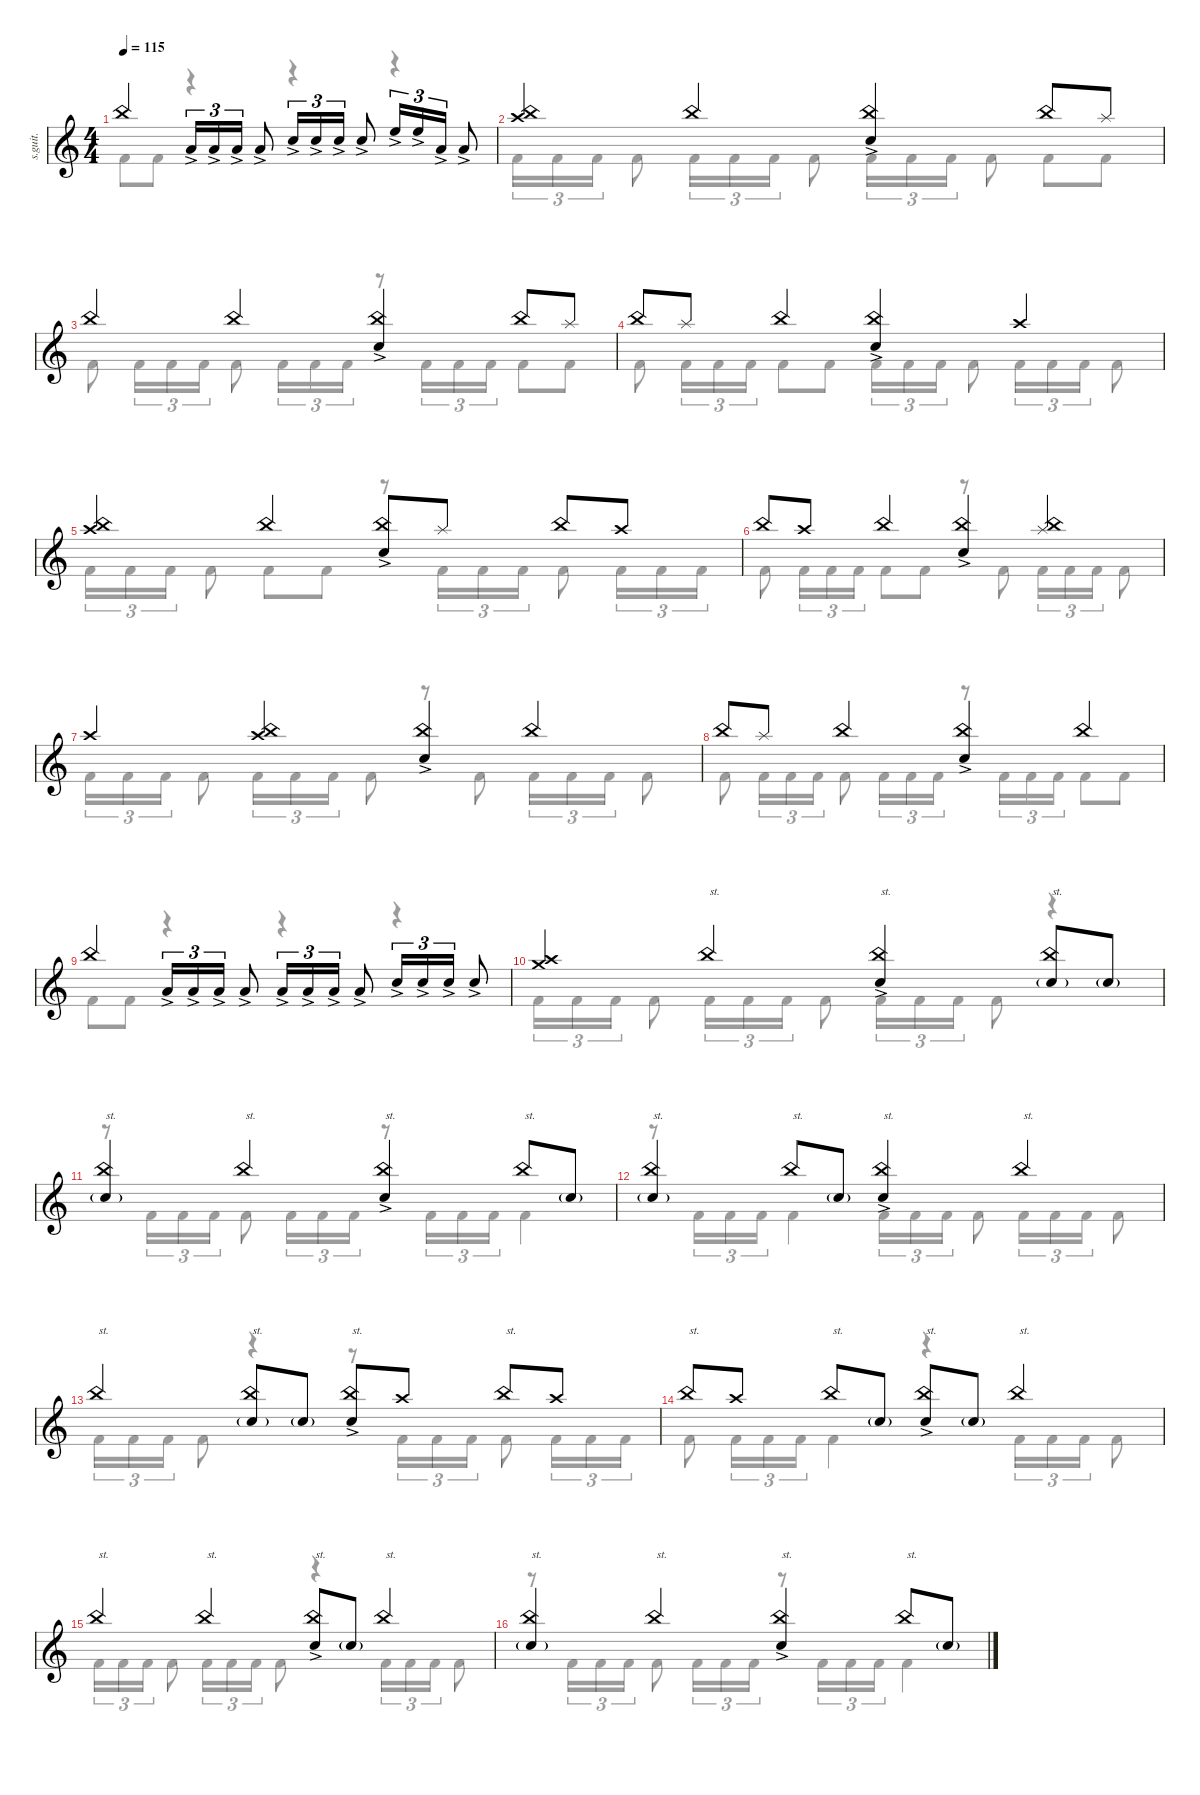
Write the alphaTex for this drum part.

\defaultSystemsLayout 4
\hideDynamics
\bracketExtendMode nobrackets
\track ("Percussion" "s.guit.") {instrument percussion}
\staff {score}
\articulation defaults
\voice
\ts (4 4)
\tempo 115
\clef g2
\ks c "China (hit)".4{lyrics (0 "") lyrics (1 "") lyrics (2 "") lyrics (3 "") lyrics (4 "") dy f} "Low Tom (hit)"{ac}.16{tu (3 2) lyrics (0 "") lyrics (1 "") lyrics (2 "") lyrics (3 "") lyrics (4 "") dy mf} "Low Tom (hit)"{ac}.16{tu (3 2) lyrics (0 "") lyrics (1 "") lyrics (2 "") lyrics (3 "") lyrics (4 "")} "Low Tom (hit)"{ac}.16{tu (3 2) lyrics (0 "") lyrics (1 "") lyrics (2 "") lyrics (3 "") lyrics (4 "")} "Low Tom (hit)"{ac}.8{lyrics (0 "") lyrics (1 "") lyrics (2 "") lyrics (3 "") lyrics (4 "")} "Snare (hit) 2"{ac}.16{tu (3 2) lyrics (0 "") lyrics (1 "") lyrics (2 "") lyrics (3 "") lyrics (4 "")} "Snare (hit) 2"{ac}.16{tu (3 2) lyrics (0 "") lyrics (1 "") lyrics (2 "") lyrics (3 "") lyrics (4 "")} "Snare (hit) 2"{ac}.16{tu (3 2) lyrics (0 "") lyrics (1 "") lyrics (2 "") lyrics (3 "") lyrics (4 "")} "Snare (hit) 2"{ac}.8{lyrics (0 "") lyrics (1 "") lyrics (2 "") lyrics (3 "") lyrics (4 "")} "High Floor Tom (hit)"{ac}.16{tu (3 2) lyrics (0 "") lyrics (1 "") lyrics (2 "") lyrics (3 "") lyrics (4 "")} "High Floor Tom (hit)"{ac}.16{tu (3 2) lyrics (0 "") lyrics (1 "") lyrics (2 "") lyrics (3 "") lyrics (4 "")} "Low Tom (hit)"{ac}.16{tu (3 2) lyrics (0 "") lyrics (1 "") lyrics (2 "") lyrics (3 "") lyrics (4 "")} "Low Tom (hit)"{ac}.8{lyrics (0 "") lyrics (1 "") lyrics (2 "") lyrics (3 "") lyrics (4 "")}
|
("China (hit)" "Crash high (hit)").4{lyrics (0 "") lyrics (1 "") lyrics (2 "") lyrics (3 "") lyrics (4 "") dy f} "China (hit)".4{lyrics (0 "") lyrics (1 "") lyrics (2 "") lyrics (3 "") lyrics (4 "")} ("China (hit)" "Snare (hit) 2"{ac}).4{lyrics (0 "") lyrics (1 "") lyrics (2 "") lyrics (3 "") lyrics (4 "")} "China (hit)".8{lyrics (0 "") lyrics (1 "") lyrics (2 "") lyrics (3 "") lyrics (4 "")} "Splash (hit)".8{lyrics (0 "") lyrics (1 "") lyrics (2 "") lyrics (3 "") lyrics (4 "")} |
"China (hit)".4{lyrics (0 "") lyrics (1 "") lyrics (2 "") lyrics (3 "") lyrics (4 "")} "China (hit)".4{lyrics (0 "") lyrics (1 "") lyrics (2 "") lyrics (3 "") lyrics (4 "")} ("China (hit)" "Snare (hit) 2"{ac}).4{lyrics (0 "") lyrics (1 "") lyrics (2 "") lyrics (3 "") lyrics (4 "")} "China (hit)".8{lyrics (0 "") lyrics (1 "") lyrics (2 "") lyrics (3 "") lyrics (4 "")} "Splash (hit)".8{lyrics (0 "") lyrics (1 "") lyrics (2 "") lyrics (3 "") lyrics (4 "")} |
"China (hit)".8{lyrics (0 "") lyrics (1 "") lyrics (2 "") lyrics (3 "") lyrics (4 "")} "Splash (hit)".8{lyrics (0 "") lyrics (1 "") lyrics (2 "") lyrics (3 "") lyrics (4 "")} "China (hit)".4{lyrics (0 "") lyrics (1 "") lyrics (2 "") lyrics (3 "") lyrics (4 "")} ("China (hit)" "Snare (hit) 2"{ac}).4{lyrics (0 "") lyrics (1 "") lyrics (2 "") lyrics (3 "") lyrics (4 "")} "Crash high (hit)".4{lyrics (0 "") lyrics (1 "") lyrics (2 "") lyrics (3 "") lyrics (4 "")} |
("China (hit)" "Crash high (hit)").4{lyrics (0 "") lyrics (1 "") lyrics (2 "") lyrics (3 "") lyrics (4 "")} "China (hit)".4{lyrics (0 "") lyrics (1 "") lyrics (2 "") lyrics (3 "") lyrics (4 "")} ("China (hit)" "Snare (hit) 2"{ac}).8{lyrics (0 "") lyrics (1 "") lyrics (2 "") lyrics (3 "") lyrics (4 "")} "Splash (hit)".8{lyrics (0 "") lyrics (1 "") lyrics (2 "") lyrics (3 "") lyrics (4 "")} "China (hit)".8{lyrics (0 "") lyrics (1 "") lyrics (2 "") lyrics (3 "") lyrics (4 "")} "Crash high (hit)".8{lyrics (0 "") lyrics (1 "") lyrics (2 "") lyrics (3 "") lyrics (4 "")} |
"China (hit)".8{lyrics (0 "") lyrics (1 "") lyrics (2 "") lyrics (3 "") lyrics (4 "")} "Crash high (hit)".8{lyrics (0 "") lyrics (1 "") lyrics (2 "") lyrics (3 "") lyrics (4 "")} "China (hit)".4{lyrics (0 "") lyrics (1 "") lyrics (2 "") lyrics (3 "") lyrics (4 "")} ("China (hit)" "Snare (hit) 2"{ac}).4{lyrics (0 "") lyrics (1 "") lyrics (2 "") lyrics (3 "") lyrics (4 "")} ("China (hit)" "Splash (hit)").4{lyrics (0 "") lyrics (1 "") lyrics (2 "") lyrics (3 "") lyrics (4 "")} |
"Crash high (hit)".4{lyrics (0 "") lyrics (1 "") lyrics (2 "") lyrics (3 "") lyrics (4 "")} ("China (hit)" "Crash high (hit)").4{lyrics (0 "") lyrics (1 "") lyrics (2 "") lyrics (3 "") lyrics (4 "")} ("China (hit)" "Snare (hit) 2"{ac}).4{lyrics (0 "") lyrics (1 "") lyrics (2 "") lyrics (3 "") lyrics (4 "")} "China (hit)".4{lyrics (0 "") lyrics (1 "") lyrics (2 "") lyrics (3 "") lyrics (4 "")} |
"China (hit)".8{lyrics (0 "") lyrics (1 "") lyrics (2 "") lyrics (3 "") lyrics (4 "")} "Splash (hit)".8{lyrics (0 "") lyrics (1 "") lyrics (2 "") lyrics (3 "") lyrics (4 "")} "China (hit)".4{lyrics (0 "") lyrics (1 "") lyrics (2 "") lyrics (3 "") lyrics (4 "")} ("China (hit)" "Snare (hit) 2"{ac}).4{lyrics (0 "") lyrics (1 "") lyrics (2 "") lyrics (3 "") lyrics (4 "")} "China (hit)".4{lyrics (0 "") lyrics (1 "") lyrics (2 "") lyrics (3 "") lyrics (4 "")} |
"China (hit)".4{lyrics (0 "") lyrics (1 "") lyrics (2 "") lyrics (3 "") lyrics (4 "")} "Low Tom (hit)"{ac}.16{tu (3 2) lyrics (0 "") lyrics (1 "") lyrics (2 "") lyrics (3 "") lyrics (4 "") dy mf} "Low Tom (hit)"{ac}.16{tu (3 2) lyrics (0 "") lyrics (1 "") lyrics (2 "") lyrics (3 "") lyrics (4 "")} "Low Tom (hit)"{ac}.16{tu (3 2) lyrics (0 "") lyrics (1 "") lyrics (2 "") lyrics (3 "") lyrics (4 "")} "Low Tom (hit)"{ac}.8{lyrics (0 "") lyrics (1 "") lyrics (2 "") lyrics (3 "") lyrics (4 "")} "Low Tom (hit)"{ac}.16{tu (3 2) lyrics (0 "") lyrics (1 "") lyrics (2 "") lyrics (3 "") lyrics (4 "")} "Low Tom (hit)"{ac}.16{tu (3 2) lyrics (0 "") lyrics (1 "") lyrics (2 "") lyrics (3 "") lyrics (4 "")} "Low Tom (hit)"{ac}.16{tu (3 2) lyrics (0 "") lyrics (1 "") lyrics (2 "") lyrics (3 "") lyrics (4 "")} "Low Tom (hit)"{ac}.8{lyrics (0 "") lyrics (1 "") lyrics (2 "") lyrics (3 "") lyrics (4 "")} "Snare (hit) 2"{ac}.16{tu (3 2) lyrics (0 "") lyrics (1 "") lyrics (2 "") lyrics (3 "") lyrics (4 "")} "Snare (hit) 2"{ac}.16{tu (3 2) lyrics (0 "") lyrics (1 "") lyrics (2 "") lyrics (3 "") lyrics (4 "")} "Snare (hit) 2"{ac}.16{tu (3 2) lyrics (0 "") lyrics (1 "") lyrics (2 "") lyrics (3 "") lyrics (4 "")} "Snare (hit) 2"{ac}.8{lyrics (0 "") lyrics (1 "") lyrics (2 "") lyrics (3 "") lyrics (4 "")} |
("Crash high (hit)" "Crash medium (hit)").4{lyrics (0 "") lyrics (1 "") lyrics (2 "") lyrics (3 "") lyrics (4 "") dy f} "China (hit)".4{txt "st." lyrics (0 "") lyrics (1 "") lyrics (2 "") lyrics (3 "") lyrics (4 "")} ("China (hit)" "Snare (hit) 2"{ac}).4{txt "st." lyrics (0 "") lyrics (1 "") lyrics (2 "") lyrics (3 "") lyrics (4 "")} ("China (hit)" "Snare (hit) 2"{g}).8{txt "st." lyrics (0 "") lyrics (1 "") lyrics (2 "") lyrics (3 "") lyrics (4 "")} "Snare (hit) 2"{g}.8{lyrics (0 "") lyrics (1 "") lyrics (2 "") lyrics (3 "") lyrics (4 "") dy ff} |
("China (hit)" "Snare (hit) 2"{g}).4{txt "st." lyrics (0 "") lyrics (1 "") lyrics (2 "") lyrics (3 "") lyrics (4 "") dy f} "China (hit)".4{txt "st." lyrics (0 "") lyrics (1 "") lyrics (2 "") lyrics (3 "") lyrics (4 "")} ("China (hit)" "Snare (hit) 2"{ac}).4{txt "st." lyrics (0 "") lyrics (1 "") lyrics (2 "") lyrics (3 "") lyrics (4 "")} "China (hit)".8{txt "st." lyrics (0 "") lyrics (1 "") lyrics (2 "") lyrics (3 "") lyrics (4 "")} "Snare (hit) 2"{g}.8{lyrics (0 "") lyrics (1 "") lyrics (2 "") lyrics (3 "") lyrics (4 "") dy ff} |
("China (hit)" "Snare (hit) 2"{g}).4{txt "st." lyrics (0 "") lyrics (1 "") lyrics (2 "") lyrics (3 "") lyrics (4 "") dy f} "China (hit)".8{txt "st." lyrics (0 "") lyrics (1 "") lyrics (2 "") lyrics (3 "") lyrics (4 "")} "Snare (hit) 2"{g}.8{lyrics (0 "") lyrics (1 "") lyrics (2 "") lyrics (3 "") lyrics (4 "") dy ff} ("China (hit)" "Snare (hit) 2"{ac}).4{txt "st." lyrics (0 "") lyrics (1 "") lyrics (2 "") lyrics (3 "") lyrics (4 "") dy f} "China (hit)".4{txt "st." lyrics (0 "") lyrics (1 "") lyrics (2 "") lyrics (3 "") lyrics (4 "")} |
"China (hit)".4{txt "st." lyrics (0 "") lyrics (1 "") lyrics (2 "") lyrics (3 "") lyrics (4 "")} ("China (hit)" "Snare (hit) 2"{g}).8{txt "st." lyrics (0 "") lyrics (1 "") lyrics (2 "") lyrics (3 "") lyrics (4 "")} "Snare (hit) 2"{g}.8{lyrics (0 "") lyrics (1 "") lyrics (2 "") lyrics (3 "") lyrics (4 "") dy ff} ("China (hit)" "Snare (hit) 2"{ac}).8{txt "st." lyrics (0 "") lyrics (1 "") lyrics (2 "") lyrics (3 "") lyrics (4 "") dy f} "Crash high (hit)".8{lyrics (0 "") lyrics (1 "") lyrics (2 "") lyrics (3 "") lyrics (4 "")} "China (hit)".8{txt "st." lyrics (0 "") lyrics (1 "") lyrics (2 "") lyrics (3 "") lyrics (4 "")} "Crash high (hit)".8{lyrics (0 "") lyrics (1 "") lyrics (2 "") lyrics (3 "") lyrics (4 "")} |
"China (hit)".8{txt "st." lyrics (0 "") lyrics (1 "") lyrics (2 "") lyrics (3 "") lyrics (4 "")} "Crash high (hit)".8{lyrics (0 "") lyrics (1 "") lyrics (2 "") lyrics (3 "") lyrics (4 "")} "China (hit)".8{txt "st." lyrics (0 "") lyrics (1 "") lyrics (2 "") lyrics (3 "") lyrics (4 "")} "Snare (hit) 2"{g}.8{lyrics (0 "") lyrics (1 "") lyrics (2 "") lyrics (3 "") lyrics (4 "") dy ff} ("China (hit)" "Snare (hit) 2"{ac}).8{txt "st." lyrics (0 "") lyrics (1 "") lyrics (2 "") lyrics (3 "") lyrics (4 "") dy f} "Snare (hit) 2"{g}.8{lyrics (0 "") lyrics (1 "") lyrics (2 "") lyrics (3 "") lyrics (4 "") dy ff} "China (hit)".4{txt "st." lyrics (0 "") lyrics (1 "") lyrics (2 "") lyrics (3 "") lyrics (4 "") dy f} |
"China (hit)".4{txt "st." lyrics (0 "") lyrics (1 "") lyrics (2 "") lyrics (3 "") lyrics (4 "")} "China (hit)".4{txt "st." lyrics (0 "") lyrics (1 "") lyrics (2 "") lyrics (3 "") lyrics (4 "")} ("China (hit)" "Snare (hit) 2"{ac}).8{txt "st." lyrics (0 "") lyrics (1 "") lyrics (2 "") lyrics (3 "") lyrics (4 "")} "Snare (hit) 2"{g}.8{lyrics (0 "") lyrics (1 "") lyrics (2 "") lyrics (3 "") lyrics (4 "") dy ff} "China (hit)".4{txt "st." lyrics (0 "") lyrics (1 "") lyrics (2 "") lyrics (3 "") lyrics (4 "") dy f} |
("China (hit)" "Snare (hit) 2"{g}).4{txt "st." lyrics (0 "") lyrics (1 "") lyrics (2 "") lyrics (3 "") lyrics (4 "")} "China (hit)".4{txt "st." lyrics (0 "") lyrics (1 "") lyrics (2 "") lyrics (3 "") lyrics (4 "")} ("China (hit)" "Snare (hit) 2"{ac}).4{txt "st." lyrics (0 "") lyrics (1 "") lyrics (2 "") lyrics (3 "") lyrics (4 "")} "China (hit)".8{txt "st." lyrics (0 "") lyrics (1 "") lyrics (2 "") lyrics (3 "") lyrics (4 "")} "Snare (hit) 2"{g}.8{lyrics (0 "") lyrics (1 "") lyrics (2 "") lyrics (3 "") lyrics (4 "") dy ff}
\voice
\clef g2
\ottava regular
\simile none
\ks c "Kick (hit) 2".8{lyrics (0 "") lyrics (1 "") lyrics (2 "") lyrics (3 "") lyrics (4 "") dy f} "Kick (hit) 2".8{lyrics (0 "") lyrics (1 "") lyrics (2 "") lyrics (3 "") lyrics (4 "")}
r.4 r.4 r.4 |
"Kick (hit) 2".16{tu (3 2) lyrics (0 "") lyrics (1 "") lyrics (2 "") lyrics (3 "") lyrics (4 "")} "Kick (hit) 2".16{tu (3 2) lyrics (0 "") lyrics (1 "") lyrics (2 "") lyrics (3 "") lyrics (4 "")} "Kick (hit) 2".16{tu (3 2) lyrics (0 "") lyrics (1 "") lyrics (2 "") lyrics (3 "") lyrics (4 "")} "Kick (hit) 2".8{lyrics (0 "") lyrics (1 "") lyrics (2 "") lyrics (3 "") lyrics (4 "")} "Kick (hit) 2".16{tu (3 2) lyrics (0 "") lyrics (1 "") lyrics (2 "") lyrics (3 "") lyrics (4 "")} "Kick (hit) 2".16{tu (3 2) lyrics (0 "") lyrics (1 "") lyrics (2 "") lyrics (3 "") lyrics (4 "")} "Kick (hit) 2".16{tu (3 2) lyrics (0 "") lyrics (1 "") lyrics (2 "") lyrics (3 "") lyrics (4 "")} "Kick (hit) 2".8{lyrics (0 "") lyrics (1 "") lyrics (2 "") lyrics (3 "") lyrics (4 "")} "Kick (hit) 2".16{tu (3 2) lyrics (0 "") lyrics (1 "") lyrics (2 "") lyrics (3 "") lyrics (4 "")} "Kick (hit) 2".16{tu (3 2) lyrics (0 "") lyrics (1 "") lyrics (2 "") lyrics (3 "") lyrics (4 "")} "Kick (hit) 2".16{tu (3 2) lyrics (0 "") lyrics (1 "") lyrics (2 "") lyrics (3 "") lyrics (4 "")} "Kick (hit) 2".8{lyrics (0 "") lyrics (1 "") lyrics (2 "") lyrics (3 "") lyrics (4 "")} "Kick (hit) 2".8{lyrics (0 "") lyrics (1 "") lyrics (2 "") lyrics (3 "") lyrics (4 "")} "Kick (hit) 2".8{lyrics (0 "") lyrics (1 "") lyrics (2 "") lyrics (3 "") lyrics (4 "")} |
"Kick (hit) 2".8{lyrics (0 "") lyrics (1 "") lyrics (2 "") lyrics (3 "") lyrics (4 "")} "Kick (hit) 2".16{tu (3 2) lyrics (0 "") lyrics (1 "") lyrics (2 "") lyrics (3 "") lyrics (4 "")} "Kick (hit) 2".16{tu (3 2) lyrics (0 "") lyrics (1 "") lyrics (2 "") lyrics (3 "") lyrics (4 "")} "Kick (hit) 2".16{tu (3 2) lyrics (0 "") lyrics (1 "") lyrics (2 "") lyrics (3 "") lyrics (4 "")} "Kick (hit) 2".8{lyrics (0 "") lyrics (1 "") lyrics (2 "") lyrics (3 "") lyrics (4 "")} "Kick (hit) 2".16{tu (3 2) lyrics (0 "") lyrics (1 "") lyrics (2 "") lyrics (3 "") lyrics (4 "")} "Kick (hit) 2".16{tu (3 2) lyrics (0 "") lyrics (1 "") lyrics (2 "") lyrics (3 "") lyrics (4 "")} "Kick (hit) 2".16{tu (3 2) lyrics (0 "") lyrics (1 "") lyrics (2 "") lyrics (3 "") lyrics (4 "")} r.8 "Kick (hit) 2".16{tu (3 2) lyrics (0 "") lyrics (1 "") lyrics (2 "") lyrics (3 "") lyrics (4 "")} "Kick (hit) 2".16{tu (3 2) lyrics (0 "") lyrics (1 "") lyrics (2 "") lyrics (3 "") lyrics (4 "")} "Kick (hit) 2".16{tu (3 2) lyrics (0 "") lyrics (1 "") lyrics (2 "") lyrics (3 "") lyrics (4 "")} "Kick (hit) 2".8{lyrics (0 "") lyrics (1 "") lyrics (2 "") lyrics (3 "") lyrics (4 "")} "Kick (hit) 2".8{lyrics (0 "") lyrics (1 "") lyrics (2 "") lyrics (3 "") lyrics (4 "")} |
"Kick (hit) 2".8{lyrics (0 "") lyrics (1 "") lyrics (2 "") lyrics (3 "") lyrics (4 "")} "Kick (hit) 2".16{tu (3 2) lyrics (0 "") lyrics (1 "") lyrics (2 "") lyrics (3 "") lyrics (4 "")} "Kick (hit) 2".16{tu (3 2) lyrics (0 "") lyrics (1 "") lyrics (2 "") lyrics (3 "") lyrics (4 "")} "Kick (hit) 2".16{tu (3 2) lyrics (0 "") lyrics (1 "") lyrics (2 "") lyrics (3 "") lyrics (4 "")} "Kick (hit) 2".8{lyrics (0 "") lyrics (1 "") lyrics (2 "") lyrics (3 "") lyrics (4 "")} "Kick (hit) 2".8{lyrics (0 "") lyrics (1 "") lyrics (2 "") lyrics (3 "") lyrics (4 "")} "Kick (hit) 2".16{tu (3 2) lyrics (0 "") lyrics (1 "") lyrics (2 "") lyrics (3 "") lyrics (4 "")} "Kick (hit) 2".16{tu (3 2) lyrics (0 "") lyrics (1 "") lyrics (2 "") lyrics (3 "") lyrics (4 "")} "Kick (hit) 2".16{tu (3 2) lyrics (0 "") lyrics (1 "") lyrics (2 "") lyrics (3 "") lyrics (4 "")} "Kick (hit) 2".8{lyrics (0 "") lyrics (1 "") lyrics (2 "") lyrics (3 "") lyrics (4 "")} "Kick (hit) 2".16{tu (3 2) lyrics (0 "") lyrics (1 "") lyrics (2 "") lyrics (3 "") lyrics (4 "")} "Kick (hit) 2".16{tu (3 2) lyrics (0 "") lyrics (1 "") lyrics (2 "") lyrics (3 "") lyrics (4 "")} "Kick (hit) 2".16{tu (3 2) lyrics (0 "") lyrics (1 "") lyrics (2 "") lyrics (3 "") lyrics (4 "")} "Kick (hit) 2".8{lyrics (0 "") lyrics (1 "") lyrics (2 "") lyrics (3 "") lyrics (4 "")} |
"Kick (hit) 2".16{tu (3 2) lyrics (0 "") lyrics (1 "") lyrics (2 "") lyrics (3 "") lyrics (4 "")} "Kick (hit) 2".16{tu (3 2) lyrics (0 "") lyrics (1 "") lyrics (2 "") lyrics (3 "") lyrics (4 "")} "Kick (hit) 2".16{tu (3 2) lyrics (0 "") lyrics (1 "") lyrics (2 "") lyrics (3 "") lyrics (4 "")} "Kick (hit) 2".8{lyrics (0 "") lyrics (1 "") lyrics (2 "") lyrics (3 "") lyrics (4 "")} "Kick (hit) 2".8{lyrics (0 "") lyrics (1 "") lyrics (2 "") lyrics (3 "") lyrics (4 "")} "Kick (hit) 2".8{lyrics (0 "") lyrics (1 "") lyrics (2 "") lyrics (3 "") lyrics (4 "")} r.8 "Kick (hit) 2".16{tu (3 2) lyrics (0 "") lyrics (1 "") lyrics (2 "") lyrics (3 "") lyrics (4 "")} "Kick (hit) 2".16{tu (3 2) lyrics (0 "") lyrics (1 "") lyrics (2 "") lyrics (3 "") lyrics (4 "")} "Kick (hit) 2".16{tu (3 2) lyrics (0 "") lyrics (1 "") lyrics (2 "") lyrics (3 "") lyrics (4 "")} "Kick (hit) 2".8{lyrics (0 "") lyrics (1 "") lyrics (2 "") lyrics (3 "") lyrics (4 "")} "Kick (hit) 2".16{tu (3 2) lyrics (0 "") lyrics (1 "") lyrics (2 "") lyrics (3 "") lyrics (4 "")} "Kick (hit) 2".16{tu (3 2) lyrics (0 "") lyrics (1 "") lyrics (2 "") lyrics (3 "") lyrics (4 "")} "Kick (hit) 2".16{tu (3 2) lyrics (0 "") lyrics (1 "") lyrics (2 "") lyrics (3 "") lyrics (4 "")} |
"Kick (hit) 2".8{lyrics (0 "") lyrics (1 "") lyrics (2 "") lyrics (3 "") lyrics (4 "")} "Kick (hit) 2".16{tu (3 2) lyrics (0 "") lyrics (1 "") lyrics (2 "") lyrics (3 "") lyrics (4 "")} "Kick (hit) 2".16{tu (3 2) lyrics (0 "") lyrics (1 "") lyrics (2 "") lyrics (3 "") lyrics (4 "")} "Kick (hit) 2".16{tu (3 2) lyrics (0 "") lyrics (1 "") lyrics (2 "") lyrics (3 "") lyrics (4 "")} "Kick (hit) 2".8{lyrics (0 "") lyrics (1 "") lyrics (2 "") lyrics (3 "") lyrics (4 "")} "Kick (hit) 2".8{lyrics (0 "") lyrics (1 "") lyrics (2 "") lyrics (3 "") lyrics (4 "")} r.8 "Kick (hit) 2".8{lyrics (0 "") lyrics (1 "") lyrics (2 "") lyrics (3 "") lyrics (4 "")} "Kick (hit) 2".16{tu (3 2) lyrics (0 "") lyrics (1 "") lyrics (2 "") lyrics (3 "") lyrics (4 "")} "Kick (hit) 2".16{tu (3 2) lyrics (0 "") lyrics (1 "") lyrics (2 "") lyrics (3 "") lyrics (4 "")} "Kick (hit) 2".16{tu (3 2) lyrics (0 "") lyrics (1 "") lyrics (2 "") lyrics (3 "") lyrics (4 "")} "Kick (hit) 2".8{lyrics (0 "") lyrics (1 "") lyrics (2 "") lyrics (3 "") lyrics (4 "")} |
"Kick (hit) 2".16{tu (3 2) lyrics (0 "") lyrics (1 "") lyrics (2 "") lyrics (3 "") lyrics (4 "")} "Kick (hit) 2".16{tu (3 2) lyrics (0 "") lyrics (1 "") lyrics (2 "") lyrics (3 "") lyrics (4 "")} "Kick (hit) 2".16{tu (3 2) lyrics (0 "") lyrics (1 "") lyrics (2 "") lyrics (3 "") lyrics (4 "")} "Kick (hit) 2".8{lyrics (0 "") lyrics (1 "") lyrics (2 "") lyrics (3 "") lyrics (4 "")} "Kick (hit) 2".16{tu (3 2) lyrics (0 "") lyrics (1 "") lyrics (2 "") lyrics (3 "") lyrics (4 "")} "Kick (hit) 2".16{tu (3 2) lyrics (0 "") lyrics (1 "") lyrics (2 "") lyrics (3 "") lyrics (4 "")} "Kick (hit) 2".16{tu (3 2) lyrics (0 "") lyrics (1 "") lyrics (2 "") lyrics (3 "") lyrics (4 "")} "Kick (hit) 2".8{lyrics (0 "") lyrics (1 "") lyrics (2 "") lyrics (3 "") lyrics (4 "")} r.8 "Kick (hit) 2".8{lyrics (0 "") lyrics (1 "") lyrics (2 "") lyrics (3 "") lyrics (4 "")} "Kick (hit) 2".16{tu (3 2) lyrics (0 "") lyrics (1 "") lyrics (2 "") lyrics (3 "") lyrics (4 "")} "Kick (hit) 2".16{tu (3 2) lyrics (0 "") lyrics (1 "") lyrics (2 "") lyrics (3 "") lyrics (4 "")} "Kick (hit) 2".16{tu (3 2) lyrics (0 "") lyrics (1 "") lyrics (2 "") lyrics (3 "") lyrics (4 "")} "Kick (hit) 2".8{lyrics (0 "") lyrics (1 "") lyrics (2 "") lyrics (3 "") lyrics (4 "")} |
"Kick (hit) 2".8{lyrics (0 "") lyrics (1 "") lyrics (2 "") lyrics (3 "") lyrics (4 "")} "Kick (hit) 2".16{tu (3 2) lyrics (0 "") lyrics (1 "") lyrics (2 "") lyrics (3 "") lyrics (4 "")} "Kick (hit) 2".16{tu (3 2) lyrics (0 "") lyrics (1 "") lyrics (2 "") lyrics (3 "") lyrics (4 "")} "Kick (hit) 2".16{tu (3 2) lyrics (0 "") lyrics (1 "") lyrics (2 "") lyrics (3 "") lyrics (4 "")} "Kick (hit) 2".8{lyrics (0 "") lyrics (1 "") lyrics (2 "") lyrics (3 "") lyrics (4 "")} "Kick (hit) 2".16{tu (3 2) lyrics (0 "") lyrics (1 "") lyrics (2 "") lyrics (3 "") lyrics (4 "")} "Kick (hit) 2".16{tu (3 2) lyrics (0 "") lyrics (1 "") lyrics (2 "") lyrics (3 "") lyrics (4 "")} "Kick (hit) 2".16{tu (3 2) lyrics (0 "") lyrics (1 "") lyrics (2 "") lyrics (3 "") lyrics (4 "")} r.8 "Kick (hit) 2".16{tu (3 2) lyrics (0 "") lyrics (1 "") lyrics (2 "") lyrics (3 "") lyrics (4 "")} "Kick (hit) 2".16{tu (3 2) lyrics (0 "") lyrics (1 "") lyrics (2 "") lyrics (3 "") lyrics (4 "")} "Kick (hit) 2".16{tu (3 2) lyrics (0 "") lyrics (1 "") lyrics (2 "") lyrics (3 "") lyrics (4 "")} "Kick (hit) 2".8{lyrics (0 "") lyrics (1 "") lyrics (2 "") lyrics (3 "") lyrics (4 "")} "Kick (hit) 2".8{lyrics (0 "") lyrics (1 "") lyrics (2 "") lyrics (3 "") lyrics (4 "")} |
"Kick (hit) 2".8{lyrics (0 "") lyrics (1 "") lyrics (2 "") lyrics (3 "") lyrics (4 "")} "Kick (hit) 2".8{lyrics (0 "") lyrics (1 "") lyrics (2 "") lyrics (3 "") lyrics (4 "")} r.4 r.4 r.4 |
"Kick (hit) 2".16{tu (3 2) lyrics (0 "") lyrics (1 "") lyrics (2 "") lyrics (3 "") lyrics (4 "")} "Kick (hit) 2".16{tu (3 2) lyrics (0 "") lyrics (1 "") lyrics (2 "") lyrics (3 "") lyrics (4 "")} "Kick (hit) 2".16{tu (3 2) lyrics (0 "") lyrics (1 "") lyrics (2 "") lyrics (3 "") lyrics (4 "")} "Kick (hit) 2".8{lyrics (0 "") lyrics (1 "") lyrics (2 "") lyrics (3 "") lyrics (4 "")} "Kick (hit) 2".16{tu (3 2) lyrics (0 "") lyrics (1 "") lyrics (2 "") lyrics (3 "") lyrics (4 "")} "Kick (hit) 2".16{tu (3 2) lyrics (0 "") lyrics (1 "") lyrics (2 "") lyrics (3 "") lyrics (4 "")} "Kick (hit) 2".16{tu (3 2) lyrics (0 "") lyrics (1 "") lyrics (2 "") lyrics (3 "") lyrics (4 "")} "Kick (hit) 2".8{lyrics (0 "") lyrics (1 "") lyrics (2 "") lyrics (3 "") lyrics (4 "")} "Kick (hit) 2".16{tu (3 2) lyrics (0 "") lyrics (1 "") lyrics (2 "") lyrics (3 "") lyrics (4 "")} "Kick (hit) 2".16{tu (3 2) lyrics (0 "") lyrics (1 "") lyrics (2 "") lyrics (3 "") lyrics (4 "")} "Kick (hit) 2".16{tu (3 2) lyrics (0 "") lyrics (1 "") lyrics (2 "") lyrics (3 "") lyrics (4 "")} "Kick (hit) 2".8{lyrics (0 "") lyrics (1 "") lyrics (2 "") lyrics (3 "") lyrics (4 "")} r.4 |
r.8 "Kick (hit) 2".16{tu (3 2) lyrics (0 "") lyrics (1 "") lyrics (2 "") lyrics (3 "") lyrics (4 "")} "Kick (hit) 2".16{tu (3 2) lyrics (0 "") lyrics (1 "") lyrics (2 "") lyrics (3 "") lyrics (4 "")} "Kick (hit) 2".16{tu (3 2) lyrics (0 "") lyrics (1 "") lyrics (2 "") lyrics (3 "") lyrics (4 "")} "Kick (hit) 2".8{lyrics (0 "") lyrics (1 "") lyrics (2 "") lyrics (3 "") lyrics (4 "")} "Kick (hit) 2".16{tu (3 2) lyrics (0 "") lyrics (1 "") lyrics (2 "") lyrics (3 "") lyrics (4 "")} "Kick (hit) 2".16{tu (3 2) lyrics (0 "") lyrics (1 "") lyrics (2 "") lyrics (3 "") lyrics (4 "")} "Kick (hit) 2".16{tu (3 2) lyrics (0 "") lyrics (1 "") lyrics (2 "") lyrics (3 "") lyrics (4 "")} r.8 "Kick (hit) 2".16{tu (3 2) lyrics (0 "") lyrics (1 "") lyrics (2 "") lyrics (3 "") lyrics (4 "")} "Kick (hit) 2".16{tu (3 2) lyrics (0 "") lyrics (1 "") lyrics (2 "") lyrics (3 "") lyrics (4 "")} "Kick (hit) 2".16{tu (3 2) lyrics (0 "") lyrics (1 "") lyrics (2 "") lyrics (3 "") lyrics (4 "")} "Kick (hit) 2".4{lyrics (0 "") lyrics (1 "") lyrics (2 "") lyrics (3 "") lyrics (4 "")} |
r.8 "Kick (hit) 2".16{tu (3 2) lyrics (0 "") lyrics (1 "") lyrics (2 "") lyrics (3 "") lyrics (4 "")} "Kick (hit) 2".16{tu (3 2) lyrics (0 "") lyrics (1 "") lyrics (2 "") lyrics (3 "") lyrics (4 "")} "Kick (hit) 2".16{tu (3 2) lyrics (0 "") lyrics (1 "") lyrics (2 "") lyrics (3 "") lyrics (4 "")} "Kick (hit) 2".4{lyrics (0 "") lyrics (1 "") lyrics (2 "") lyrics (3 "") lyrics (4 "")} "Kick (hit) 2".16{tu (3 2) lyrics (0 "") lyrics (1 "") lyrics (2 "") lyrics (3 "") lyrics (4 "")} "Kick (hit) 2".16{tu (3 2) lyrics (0 "") lyrics (1 "") lyrics (2 "") lyrics (3 "") lyrics (4 "")} "Kick (hit) 2".16{tu (3 2) lyrics (0 "") lyrics (1 "") lyrics (2 "") lyrics (3 "") lyrics (4 "")} "Kick (hit) 2".8{lyrics (0 "") lyrics (1 "") lyrics (2 "") lyrics (3 "") lyrics (4 "")} "Kick (hit) 2".16{tu (3 2) lyrics (0 "") lyrics (1 "") lyrics (2 "") lyrics (3 "") lyrics (4 "")} "Kick (hit) 2".16{tu (3 2) lyrics (0 "") lyrics (1 "") lyrics (2 "") lyrics (3 "") lyrics (4 "")} "Kick (hit) 2".16{tu (3 2) lyrics (0 "") lyrics (1 "") lyrics (2 "") lyrics (3 "") lyrics (4 "")} "Kick (hit) 2".8{lyrics (0 "") lyrics (1 "") lyrics (2 "") lyrics (3 "") lyrics (4 "")} |
"Kick (hit) 2".16{tu (3 2) lyrics (0 "") lyrics (1 "") lyrics (2 "") lyrics (3 "") lyrics (4 "")} "Kick (hit) 2".16{tu (3 2) lyrics (0 "") lyrics (1 "") lyrics (2 "") lyrics (3 "") lyrics (4 "")} "Kick (hit) 2".16{tu (3 2) lyrics (0 "") lyrics (1 "") lyrics (2 "") lyrics (3 "") lyrics (4 "")} "Kick (hit) 2".8{lyrics (0 "") lyrics (1 "") lyrics (2 "") lyrics (3 "") lyrics (4 "")} r.4 r.8 "Kick (hit) 2".16{tu (3 2) lyrics (0 "") lyrics (1 "") lyrics (2 "") lyrics (3 "") lyrics (4 "")} "Kick (hit) 2".16{tu (3 2) lyrics (0 "") lyrics (1 "") lyrics (2 "") lyrics (3 "") lyrics (4 "")} "Kick (hit) 2".16{tu (3 2) lyrics (0 "") lyrics (1 "") lyrics (2 "") lyrics (3 "") lyrics (4 "")} "Kick (hit) 2".8{lyrics (0 "") lyrics (1 "") lyrics (2 "") lyrics (3 "") lyrics (4 "")} "Kick (hit) 2".16{tu (3 2) lyrics (0 "") lyrics (1 "") lyrics (2 "") lyrics (3 "") lyrics (4 "")} "Kick (hit) 2".16{tu (3 2) lyrics (0 "") lyrics (1 "") lyrics (2 "") lyrics (3 "") lyrics (4 "")} "Kick (hit) 2".16{tu (3 2) lyrics (0 "") lyrics (1 "") lyrics (2 "") lyrics (3 "") lyrics (4 "")} |
"Kick (hit) 2".8{lyrics (0 "") lyrics (1 "") lyrics (2 "") lyrics (3 "") lyrics (4 "")} "Kick (hit) 2".16{tu (3 2) lyrics (0 "") lyrics (1 "") lyrics (2 "") lyrics (3 "") lyrics (4 "")} "Kick (hit) 2".16{tu (3 2) lyrics (0 "") lyrics (1 "") lyrics (2 "") lyrics (3 "") lyrics (4 "")} "Kick (hit) 2".16{tu (3 2) lyrics (0 "") lyrics (1 "") lyrics (2 "") lyrics (3 "") lyrics (4 "")} "Kick (hit) 2".4{lyrics (0 "") lyrics (1 "") lyrics (2 "") lyrics (3 "") lyrics (4 "")} r.4 "Kick (hit) 2".16{tu (3 2) lyrics (0 "") lyrics (1 "") lyrics (2 "") lyrics (3 "") lyrics (4 "")} "Kick (hit) 2".16{tu (3 2) lyrics (0 "") lyrics (1 "") lyrics (2 "") lyrics (3 "") lyrics (4 "")} "Kick (hit) 2".16{tu (3 2) lyrics (0 "") lyrics (1 "") lyrics (2 "") lyrics (3 "") lyrics (4 "")} "Kick (hit) 2".8{lyrics (0 "") lyrics (1 "") lyrics (2 "") lyrics (3 "") lyrics (4 "")} |
"Kick (hit) 2".16{tu (3 2) lyrics (0 "") lyrics (1 "") lyrics (2 "") lyrics (3 "") lyrics (4 "")} "Kick (hit) 2".16{tu (3 2) lyrics (0 "") lyrics (1 "") lyrics (2 "") lyrics (3 "") lyrics (4 "")} "Kick (hit) 2".16{tu (3 2) lyrics (0 "") lyrics (1 "") lyrics (2 "") lyrics (3 "") lyrics (4 "")} "Kick (hit) 2".8{lyrics (0 "") lyrics (1 "") lyrics (2 "") lyrics (3 "") lyrics (4 "")} "Kick (hit) 2".16{tu (3 2) lyrics (0 "") lyrics (1 "") lyrics (2 "") lyrics (3 "") lyrics (4 "")} "Kick (hit) 2".16{tu (3 2) lyrics (0 "") lyrics (1 "") lyrics (2 "") lyrics (3 "") lyrics (4 "")} "Kick (hit) 2".16{tu (3 2) lyrics (0 "") lyrics (1 "") lyrics (2 "") lyrics (3 "") lyrics (4 "")} "Kick (hit) 2".8{lyrics (0 "") lyrics (1 "") lyrics (2 "") lyrics (3 "") lyrics (4 "")} r.4 "Kick (hit) 2".16{tu (3 2) lyrics (0 "") lyrics (1 "") lyrics (2 "") lyrics (3 "") lyrics (4 "")} "Kick (hit) 2".16{tu (3 2) lyrics (0 "") lyrics (1 "") lyrics (2 "") lyrics (3 "") lyrics (4 "")} "Kick (hit) 2".16{tu (3 2) lyrics (0 "") lyrics (1 "") lyrics (2 "") lyrics (3 "") lyrics (4 "")} "Kick (hit) 2".8{lyrics (0 "") lyrics (1 "") lyrics (2 "") lyrics (3 "") lyrics (4 "")} |
r.8 "Kick (hit) 2".16{tu (3 2) lyrics (0 "") lyrics (1 "") lyrics (2 "") lyrics (3 "") lyrics (4 "")} "Kick (hit) 2".16{tu (3 2) lyrics (0 "") lyrics (1 "") lyrics (2 "") lyrics (3 "") lyrics (4 "")} "Kick (hit) 2".16{tu (3 2) lyrics (0 "") lyrics (1 "") lyrics (2 "") lyrics (3 "") lyrics (4 "")} "Kick (hit) 2".8{lyrics (0 "") lyrics (1 "") lyrics (2 "") lyrics (3 "") lyrics (4 "")} "Kick (hit) 2".16{tu (3 2) lyrics (0 "") lyrics (1 "") lyrics (2 "") lyrics (3 "") lyrics (4 "")} "Kick (hit) 2".16{tu (3 2) lyrics (0 "") lyrics (1 "") lyrics (2 "") lyrics (3 "") lyrics (4 "")} "Kick (hit) 2".16{tu (3 2) lyrics (0 "") lyrics (1 "") lyrics (2 "") lyrics (3 "") lyrics (4 "")} r.8 "Kick (hit) 2".16{tu (3 2) lyrics (0 "") lyrics (1 "") lyrics (2 "") lyrics (3 "") lyrics (4 "")} "Kick (hit) 2".16{tu (3 2) lyrics (0 "") lyrics (1 "") lyrics (2 "") lyrics (3 "") lyrics (4 "")} "Kick (hit) 2".16{tu (3 2) lyrics (0 "") lyrics (1 "") lyrics (2 "") lyrics (3 "") lyrics (4 "")} "Kick (hit) 2".4{lyrics (0 "") lyrics (1 "") lyrics (2 "") lyrics (3 "") lyrics (4 "")}
